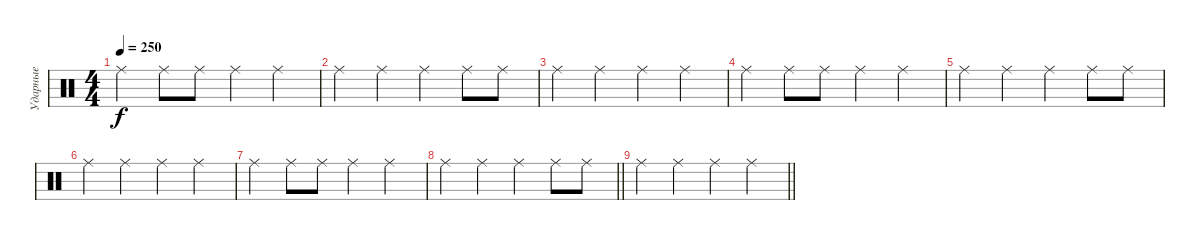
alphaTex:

\track ("Ударные" "Ударные") {instrument percussion}
\staff {score}
\articulation defaults
\ts (4 4)
\tempo 250
\clef neutral
\ks c "Ride (middle)".4{dy f} "Ride (middle)".8 "Ride (middle)".8 "Ride (middle)".4 "Ride (middle)".4
|
"Ride (middle)".4 "Ride (middle)".4 "Ride (middle)".4 "Ride (middle)".8 "Ride (middle)".8 |
"Ride (middle)".4 "Ride (middle)".4 "Ride (middle)".4 "Ride (middle)".4 |
"Ride (middle)".4 "Ride (middle)".8 "Ride (middle)".8 "Ride (middle)".4 "Ride (middle)".4 |
"Ride (middle)".4 "Ride (middle)".4 "Ride (middle)".4 "Ride (middle)".8 "Ride (middle)".8 |
"Ride (middle)".4 "Ride (middle)".4 "Ride (middle)".4 "Ride (middle)".4 |
"Ride (middle)".4 "Ride (middle)".8 "Ride (middle)".8 "Ride (middle)".4 "Ride (middle)".4 |
\barLineRight lightlight "Ride (middle)".4 "Ride (middle)".4 "Ride (middle)".4 "Ride (middle)".8 "Ride (middle)".8
|
\barLineRight lightlight "Ride (middle)".4 "Ride (middle)".4 "Ride (middle)".4 "Ride (middle)".4
